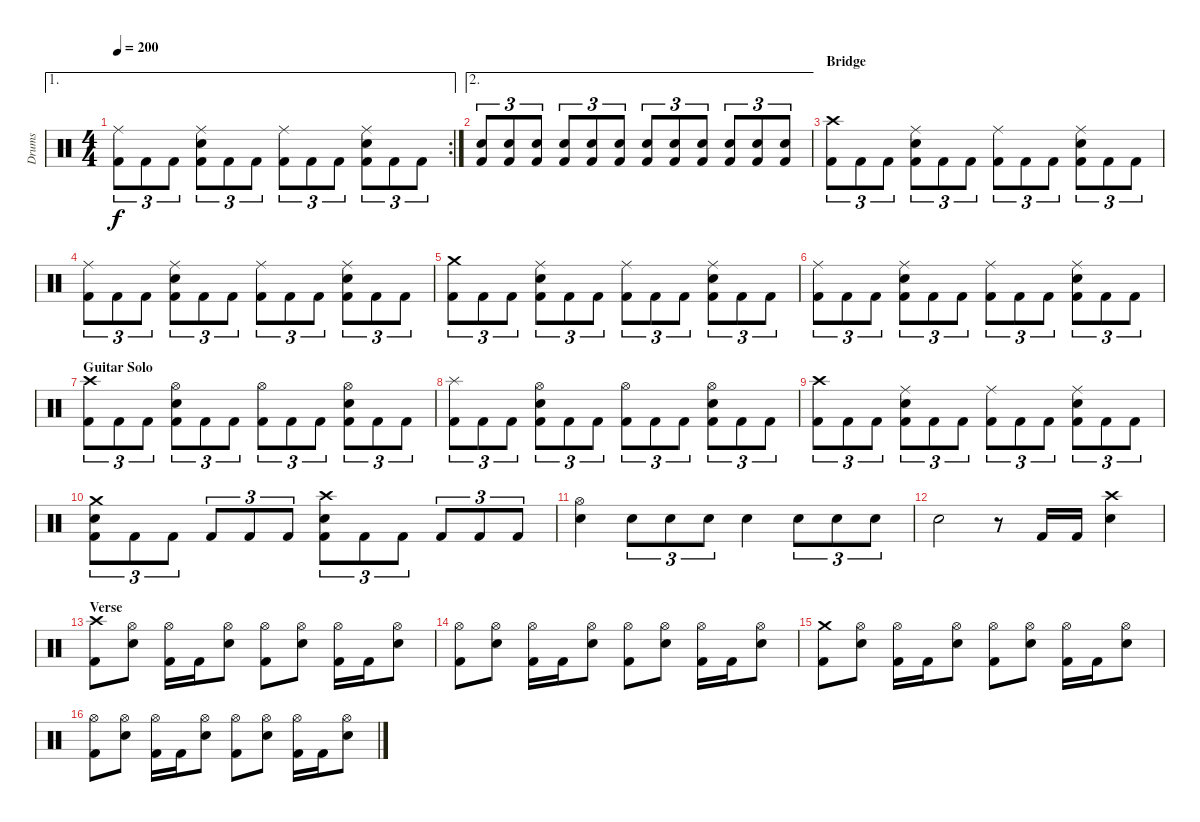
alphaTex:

\track ("Drums" "Drums") {instrument percussion}
\staff {score}
\articulation defaults
\ae 1
\rc 2
\ts (4 4)
\tempo 200
\clef neutral
\ks c
("Ride (middle)" "Kick (hit) 2").8{tu (3 2) dy f} "Kick (hit) 2".8{tu (3 2)} "Kick (hit) 2".8{tu (3 2)} ("Ride (middle)" "Electric Snare (hit)" "Kick (hit) 2").8{tu (3 2)} "Kick (hit) 2".8{tu (3 2)} "Kick (hit) 2".8{tu (3 2)} ("Ride (middle)" "Kick (hit) 2").8{tu (3 2)} "Kick (hit) 2".8{tu (3 2)} "Kick (hit) 2".8{tu (3 2)} ("Ride (middle)" "Electric Snare (hit)" "Kick (hit) 2").8{tu (3 2)} "Kick (hit) 2".8{tu (3 2)} "Kick (hit) 2".8{tu (3 2)} |
\ae 2
("Electric Snare (hit)" "Kick (hit) 2").8{tu (3 2)} ("Electric Snare (hit)" "Kick (hit) 2").8{tu (3 2)} ("Electric Snare (hit)" "Kick (hit) 2").8{tu (3 2)} ("Electric Snare (hit)" "Kick (hit) 2").8{tu (3 2)} ("Electric Snare (hit)" "Kick (hit) 2").8{tu (3 2)} ("Electric Snare (hit)" "Kick (hit) 2").8{tu (3 2)} ("Electric Snare (hit)" "Kick (hit) 2").8{tu (3 2)} ("Electric Snare (hit)" "Kick (hit) 2").8{tu (3 2)} ("Electric Snare (hit)" "Kick (hit) 2").8{tu (3 2)} ("Electric Snare (hit)" "Kick (hit) 2").8{tu (3 2)} ("Electric Snare (hit)" "Kick (hit) 2").8{tu (3 2)} ("Electric Snare (hit)" "Kick (hit) 2").8{tu (3 2)} |
\section ("" "Bridge")
("Crash high (hit)" "Kick (hit) 2").8{tu (3 2)} "Kick (hit) 2".8{tu (3 2)} "Kick (hit) 2".8{tu (3 2)} ("Ride (middle)" "Electric Snare (hit)" "Kick (hit) 2").8{tu (3 2)} "Kick (hit) 2".8{tu (3 2)} "Kick (hit) 2".8{tu (3 2)} ("Ride (middle)" "Kick (hit) 2").8{tu (3 2)} "Kick (hit) 2".8{tu (3 2)} "Kick (hit) 2".8{tu (3 2)} ("Ride (middle)" "Electric Snare (hit)" "Kick (hit) 2").8{tu (3 2)} "Kick (hit) 2".8{tu (3 2)} "Kick (hit) 2".8{tu (3 2)} |
("Ride (middle)" "Kick (hit) 2").8{tu (3 2)} "Kick (hit) 2".8{tu (3 2)} "Kick (hit) 2".8{tu (3 2)} ("Ride (middle)" "Electric Snare (hit)" "Kick (hit) 2").8{tu (3 2)} "Kick (hit) 2".8{tu (3 2)} "Kick (hit) 2".8{tu (3 2)} ("Ride (middle)" "Kick (hit) 2").8{tu (3 2)} "Kick (hit) 2".8{tu (3 2)} "Kick (hit) 2".8{tu (3 2)} ("Ride (middle)" "Electric Snare (hit)" "Kick (hit) 2").8{tu (3 2)} "Kick (hit) 2".8{tu (3 2)} "Kick (hit) 2".8{tu (3 2)} |
("Crash medium (hit)" "Kick (hit) 2").8{tu (3 2)} "Kick (hit) 2".8{tu (3 2)} "Kick (hit) 2".8{tu (3 2)} ("Ride (middle)" "Electric Snare (hit)" "Kick (hit) 2").8{tu (3 2)} "Kick (hit) 2".8{tu (3 2)} "Kick (hit) 2".8{tu (3 2)} ("Ride (middle)" "Kick (hit) 2").8{tu (3 2)} "Kick (hit) 2".8{tu (3 2)} "Kick (hit) 2".8{tu (3 2)} ("Ride (middle)" "Electric Snare (hit)" "Kick (hit) 2").8{tu (3 2)} "Kick (hit) 2".8{tu (3 2)} "Kick (hit) 2".8{tu (3 2)} |
("Ride (middle)" "Kick (hit) 2").8{tu (3 2)} "Kick (hit) 2".8{tu (3 2)} "Kick (hit) 2".8{tu (3 2)} ("Ride (middle)" "Electric Snare (hit)" "Kick (hit) 2").8{tu (3 2)} "Kick (hit) 2".8{tu (3 2)} "Kick (hit) 2".8{tu (3 2)} ("Ride (middle)" "Kick (hit) 2").8{tu (3 2)} "Kick (hit) 2".8{tu (3 2)} "Kick (hit) 2".8{tu (3 2)} ("Ride (middle)" "Electric Snare (hit)" "Kick (hit) 2").8{tu (3 2)} "Kick (hit) 2".8{tu (3 2)} "Kick (hit) 2".8{tu (3 2)} |
\section ("" "Guitar Solo")
("Crash high (hit)" "Kick (hit) 2").8{tu (3 2)} "Kick (hit) 2".8{tu (3 2)} "Kick (hit) 2".8{tu (3 2)} ("Hi-Hat (open)" "Electric Snare (hit)" "Kick (hit) 2").8{tu (3 2)} "Kick (hit) 2".8{tu (3 2)} "Kick (hit) 2".8{tu (3 2)} ("Hi-Hat (open)" "Kick (hit) 2").8{tu (3 2)} "Kick (hit) 2".8{tu (3 2)} "Kick (hit) 2".8{tu (3 2)} ("Hi-Hat (open)" "Electric Snare (hit)" "Kick (hit) 2").8{tu (3 2)} "Kick (hit) 2".8{tu (3 2)} "Kick (hit) 2".8{tu (3 2)} |
("Splash (hit)" "Kick (hit) 2").8{tu (3 2)} "Kick (hit) 2".8{tu (3 2)} "Kick (hit) 2".8{tu (3 2)} ("Hi-Hat (open)" "Electric Snare (hit)" "Kick (hit) 2").8{tu (3 2)} "Kick (hit) 2".8{tu (3 2)} "Kick (hit) 2".8{tu (3 2)} ("Hi-Hat (open)" "Kick (hit) 2").8{tu (3 2)} "Kick (hit) 2".8{tu (3 2)} "Kick (hit) 2".8{tu (3 2)} ("Hi-Hat (open)" "Electric Snare (hit)" "Kick (hit) 2").8{tu (3 2)} "Kick (hit) 2".8{tu (3 2)} "Kick (hit) 2".8{tu (3 2)} |
("Crash high (hit)" "Kick (hit) 2").8{tu (3 2)} "Kick (hit) 2".8{tu (3 2)} "Kick (hit) 2".8{tu (3 2)} ("Ride (middle)" "Electric Snare (hit)" "Kick (hit) 2").8{tu (3 2)} "Kick (hit) 2".8{tu (3 2)} "Kick (hit) 2".8{tu (3 2)} ("Ride (middle)" "Kick (hit) 2").8{tu (3 2)} "Kick (hit) 2".8{tu (3 2)} "Kick (hit) 2".8{tu (3 2)} ("Ride (middle)" "Electric Snare (hit)" "Kick (hit) 2").8{tu (3 2)} "Kick (hit) 2".8{tu (3 2)} "Kick (hit) 2".8{tu (3 2)} |
("Crash medium (hit)" "Electric Snare (hit)" "Kick (hit) 2").8{tu (3 2)} "Kick (hit) 2".8{tu (3 2)} "Kick (hit) 2".8{tu (3 2)} "Kick (hit) 2".8{tu (3 2)} "Kick (hit) 2".8{tu (3 2)} "Kick (hit) 2".8{tu (3 2)} ("Crash high (hit)" "Electric Snare (hit)" "Kick (hit) 2").8{tu (3 2)} "Kick (hit) 2".8{tu (3 2)} "Kick (hit) 2".8{tu (3 2)} "Kick (hit) 2".8{tu (3 2)} "Kick (hit) 2".8{tu (3 2)} "Kick (hit) 2".8{tu (3 2)} |
("Hi-Hat (open)" "Electric Snare (hit)").4 "Electric Snare (hit)".8{tu (3 2)} "Electric Snare (hit)".8{tu (3 2)} "Electric Snare (hit)".8{tu (3 2)} "Electric Snare (hit)".4 "Electric Snare (hit)".8{tu (3 2)} "Electric Snare (hit)".8{tu (3 2)} "Electric Snare (hit)".8{tu (3 2)} |
"Electric Snare (hit)".2 r.8 "Kick (hit) 2".16 "Kick (hit) 2".16 ("Crash high (hit)" "Electric Snare (hit)").4 |
\section ("" "Verse")
("Crash high (hit)" "Kick (hit) 2").8 ("Hi-Hat (open)" "Electric Snare (hit)").8 ("Hi-Hat (open)" "Kick (hit) 2").16 "Kick (hit) 2".16 ("Hi-Hat (open)" "Electric Snare (hit)").8 ("Hi-Hat (open)" "Kick (hit) 2").8 ("Hi-Hat (open)" "Electric Snare (hit)").8 ("Hi-Hat (open)" "Kick (hit) 2").16 "Kick (hit) 2".16 ("Hi-Hat (open)" "Electric Snare (hit)").8 |
("Hi-Hat (open)" "Kick (hit) 2").8 ("Hi-Hat (open)" "Electric Snare (hit)").8 ("Hi-Hat (open)" "Kick (hit) 2").16 "Kick (hit) 2".16 ("Hi-Hat (open)" "Electric Snare (hit)").8 ("Hi-Hat (open)" "Kick (hit) 2").8 ("Hi-Hat (open)" "Electric Snare (hit)").8 ("Hi-Hat (open)" "Kick (hit) 2").16 "Kick (hit) 2".16 ("Hi-Hat (open)" "Electric Snare (hit)").8 |
("Crash medium (hit)" "Kick (hit) 2").8 ("Hi-Hat (open)" "Electric Snare (hit)").8 ("Hi-Hat (open)" "Kick (hit) 2").16 "Kick (hit) 2".16 ("Hi-Hat (open)" "Electric Snare (hit)").8 ("Hi-Hat (open)" "Kick (hit) 2").8 ("Hi-Hat (open)" "Electric Snare (hit)").8 ("Hi-Hat (open)" "Kick (hit) 2").16 "Kick (hit) 2".16 ("Hi-Hat (open)" "Electric Snare (hit)").8 |
("Hi-Hat (open)" "Kick (hit) 2").8 ("Hi-Hat (open)" "Electric Snare (hit)").8 ("Hi-Hat (open)" "Kick (hit) 2").16 "Kick (hit) 2".16 ("Hi-Hat (open)" "Electric Snare (hit)").8 ("Hi-Hat (open)" "Kick (hit) 2").8 ("Hi-Hat (open)" "Electric Snare (hit)").8 ("Hi-Hat (open)" "Kick (hit) 2").16 "Kick (hit) 2".16 ("Hi-Hat (open)" "Electric Snare (hit)").8
